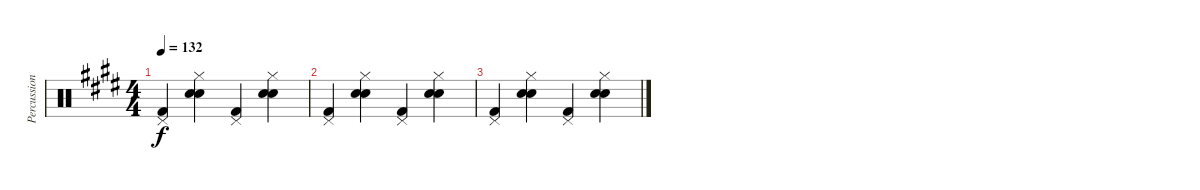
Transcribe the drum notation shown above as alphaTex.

\track ("Percussion" "Percussion") {instrument percussion}
\staff {score}
\articulation defaults
\ts (4 4)
\tempo 132
\clef neutral
\ks e
("Pedal Hi-Hat (hit)" "Kick (hit) 2").4{dy f} ("Hi-Hat (closed)" "Electric Snare (hit)" "Hand Clap (hit)").4 ("Pedal Hi-Hat (hit)" "Kick (hit) 2").4 ("Hi-Hat (closed)" "Electric Snare (hit)" "Hand Clap (hit)").4 |
("Pedal Hi-Hat (hit)" "Kick (hit) 2").4 ("Hi-Hat (closed)" "Electric Snare (hit)" "Hand Clap (hit)").4 ("Pedal Hi-Hat (hit)" "Kick (hit) 2").4 ("Hi-Hat (closed)" "Electric Snare (hit)" "Hand Clap (hit)").4 |
("Pedal Hi-Hat (hit)" "Kick (hit) 2").4 ("Hi-Hat (closed)" "Electric Snare (hit)" "Hand Clap (hit)").4 ("Pedal Hi-Hat (hit)" "Kick (hit) 2").4 ("Hi-Hat (closed)" "Electric Snare (hit)" "Hand Clap (hit)").4
